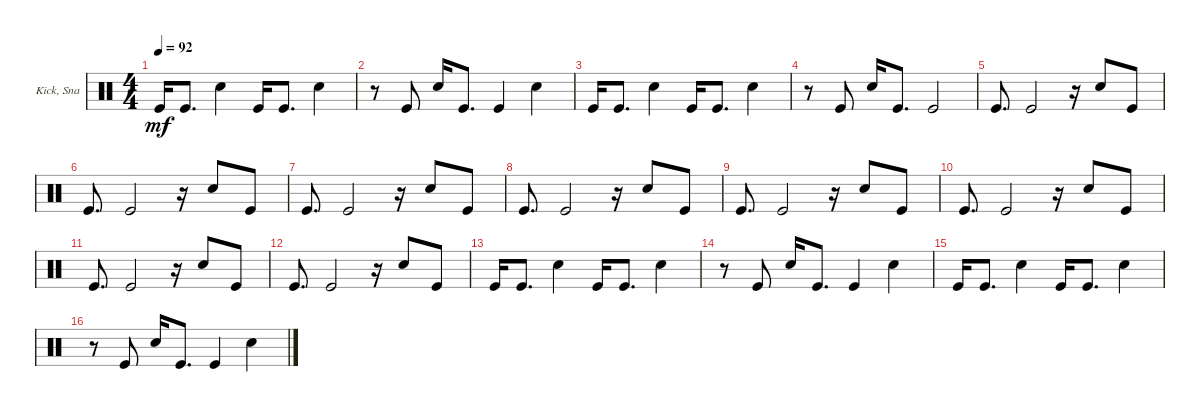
\bracketExtendMode groupsimilarinstruments
\firstSystemTrackNameOrientation horizontal
\otherSystemsTrackNameOrientation horizontal
\track (" Kick, Snare" " Kick, Sna") {instrument percussion}
\staff {score}
\articulation defaults
\ts (4 4)
\tempo 92
\clef neutral
\ks c "Kick (hit)".16{dy mf} "Kick (hit)".8{d} "Snare (hit) 2".4 "Kick (hit)".16 "Kick (hit)".8{d} "Snare (hit) 2".4
|
r.8 "Kick (hit)".8 "Snare (hit) 2".16 "Kick (hit)".8{d} "Kick (hit)".4 "Snare (hit) 2".4 |
"Kick (hit)".16 "Kick (hit)".8{d} "Snare (hit) 2".4 "Kick (hit)".16 "Kick (hit)".8{d} "Snare (hit) 2".4 |
r.8 "Kick (hit)".8 "Snare (hit) 2".16 "Kick (hit)".8{d} "Kick (hit)".2 |
"Kick (hit)".8{d} "Kick (hit)".2 r.16 "Snare (hit) 2".8 "Kick (hit)".8 |
"Kick (hit)".8{d} "Kick (hit)".2 r.16 "Snare (hit) 2".8 "Kick (hit)".8 |
"Kick (hit)".8{d} "Kick (hit)".2 r.16 "Snare (hit) 2".8 "Kick (hit)".8 |
"Kick (hit)".8{d} "Kick (hit)".2 r.16 "Snare (hit) 2".8 "Kick (hit)".8 |
"Kick (hit)".8{d} "Kick (hit)".2 r.16 "Snare (hit) 2".8 "Kick (hit)".8 |
"Kick (hit)".8{d} "Kick (hit)".2 r.16 "Snare (hit) 2".8 "Kick (hit)".8 |
"Kick (hit)".8{d} "Kick (hit)".2 r.16 "Snare (hit) 2".8 "Kick (hit)".8 |
"Kick (hit)".8{d} "Kick (hit)".2 r.16 "Snare (hit) 2".8 "Kick (hit)".8 |
"Kick (hit)".16 "Kick (hit)".8{d} "Snare (hit) 2".4 "Kick (hit)".16 "Kick (hit)".8{d} "Snare (hit) 2".4 |
r.8 "Kick (hit)".8 "Snare (hit) 2".16 "Kick (hit)".8{d} "Kick (hit)".4 "Snare (hit) 2".4 |
"Kick (hit)".16 "Kick (hit)".8{d} "Snare (hit) 2".4 "Kick (hit)".16 "Kick (hit)".8{d} "Snare (hit) 2".4 |
r.8 "Kick (hit)".8 "Snare (hit) 2".16 "Kick (hit)".8{d} "Kick (hit)".4 "Snare (hit) 2".4
